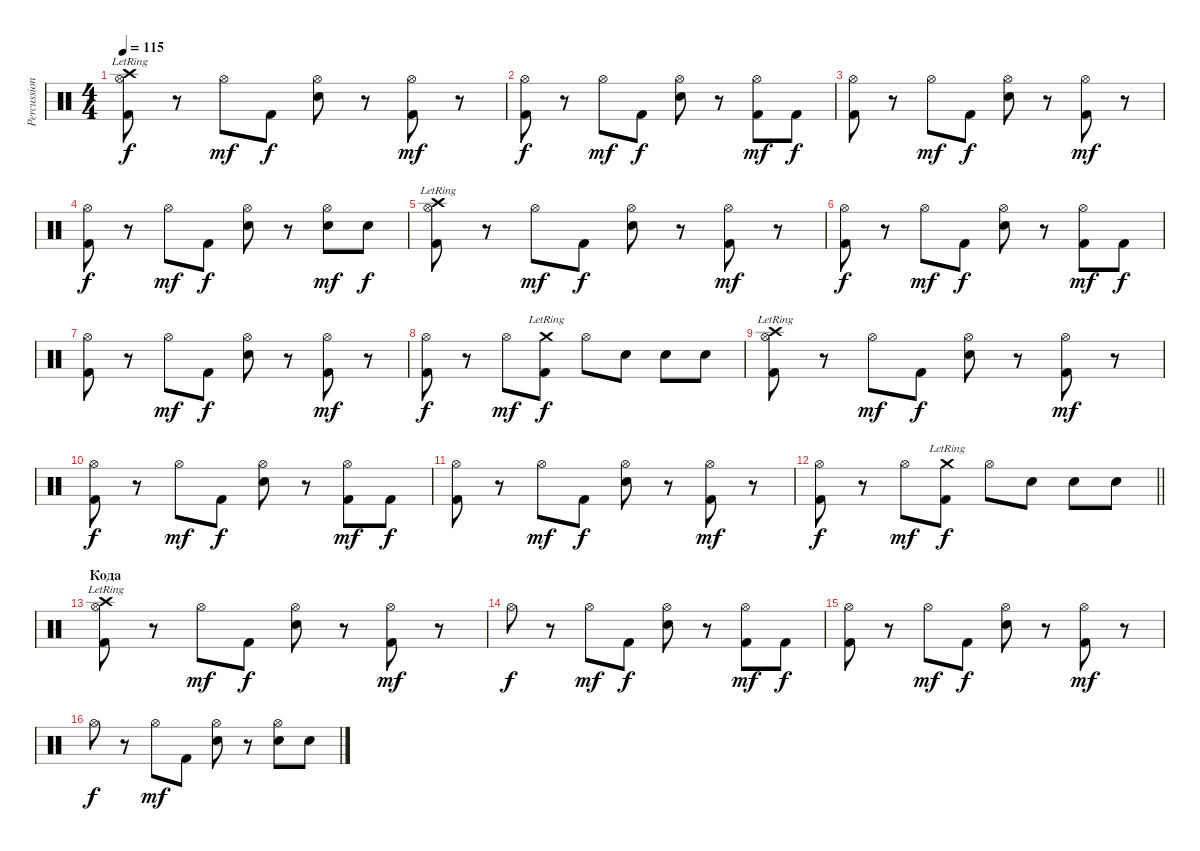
\track ("Percussions" "Percussion") {instrument percussion}
\staff {score}
\articulation defaults
\ts (4 4)
\tempo 115
\clef neutral
\ks c
("Crash high (hit)"{lr} "Kick (hit) 2" "Hi-Hat (open)").8{dy f} r.8 "Hi-Hat (open)".8{dy mf} "Kick (hit) 2".8{dy f} ("Electric Snare (hit)" "Hi-Hat (open)").8 r.8 ("Kick (hit) 2" "Hi-Hat (open)").8{dy mf} r.8 |
("Kick (hit) 2" "Hi-Hat (open)").8{dy f} r.8 "Hi-Hat (open)".8{dy mf} "Kick (hit) 2".8{dy f} ("Electric Snare (hit)" "Hi-Hat (open)").8 r.8 ("Kick (hit) 2" "Hi-Hat (open)").8{dy mf} "Kick (hit) 2".8{dy f} |
("Kick (hit) 2" "Hi-Hat (open)").8 r.8 "Hi-Hat (open)".8{dy mf} "Kick (hit) 2".8{dy f} ("Electric Snare (hit)" "Hi-Hat (open)").8 r.8 ("Kick (hit) 2" "Hi-Hat (open)").8{dy mf} r.8 |
("Kick (hit) 2" "Hi-Hat (open)").8{dy f} r.8 "Hi-Hat (open)".8{dy mf} "Kick (hit) 2".8{dy f} ("Electric Snare (hit)" "Hi-Hat (open)").8 r.8 ("Electric Snare (hit)" "Hi-Hat (open)").8{dy mf} "Electric Snare (hit)".8{dy f} |
("Crash high (hit)"{lr} "Kick (hit) 2" "Hi-Hat (open)").8 r.8 "Hi-Hat (open)".8{dy mf} "Kick (hit) 2".8{dy f} ("Electric Snare (hit)" "Hi-Hat (open)").8 r.8 ("Kick (hit) 2" "Hi-Hat (open)").8{dy mf} r.8 |
("Kick (hit) 2" "Hi-Hat (open)").8{dy f} r.8 "Hi-Hat (open)".8{dy mf} "Kick (hit) 2".8{dy f} ("Electric Snare (hit)" "Hi-Hat (open)").8 r.8 ("Kick (hit) 2" "Hi-Hat (open)").8{dy mf} "Kick (hit) 2".8{dy f} |
("Kick (hit) 2" "Hi-Hat (open)").8 r.8 "Hi-Hat (open)".8{dy mf} "Kick (hit) 2".8{dy f} ("Electric Snare (hit)" "Hi-Hat (open)").8 r.8 ("Kick (hit) 2" "Hi-Hat (open)").8{dy mf} r.8 |
("Kick (hit) 2" "Hi-Hat (open)").8{dy f} r.8 "Hi-Hat (open)".8{dy mf} ("Crash medium (hit)"{lr} "Kick (hit) 2").8{dy f} "Hi-Hat (open)".8 "Electric Snare (hit)".8 "Electric Snare (hit)".8 "Electric Snare (hit)".8 |
("Crash high (hit)"{lr} "Kick (hit) 2" "Hi-Hat (open)").8 r.8 "Hi-Hat (open)".8{dy mf} "Kick (hit) 2".8{dy f} ("Electric Snare (hit)" "Hi-Hat (open)").8 r.8 ("Kick (hit) 2" "Hi-Hat (open)").8{dy mf} r.8 |
("Kick (hit) 2" "Hi-Hat (open)").8{dy f} r.8 "Hi-Hat (open)".8{dy mf} "Kick (hit) 2".8{dy f} ("Electric Snare (hit)" "Hi-Hat (open)").8 r.8 ("Kick (hit) 2" "Hi-Hat (open)").8{dy mf} "Kick (hit) 2".8{dy f} |
("Kick (hit) 2" "Hi-Hat (open)").8 r.8 "Hi-Hat (open)".8{dy mf} "Kick (hit) 2".8{dy f} ("Electric Snare (hit)" "Hi-Hat (open)").8 r.8 ("Kick (hit) 2" "Hi-Hat (open)").8{dy mf} r.8 |
\barLineRight lightlight
("Kick (hit) 2" "Hi-Hat (open)").8{dy f} r.8 "Hi-Hat (open)".8{dy mf} ("Crash medium (hit)"{lr} "Kick (hit) 2").8{dy f} "Hi-Hat (open)".8 "Electric Snare (hit)".8 "Electric Snare (hit)".8 "Electric Snare (hit)".8 |
\section ("" "Кода")
("Crash high (hit)"{lr} "Kick (hit) 2" "Hi-Hat (open)").8 r.8 "Hi-Hat (open)".8{dy mf} "Kick (hit) 2".8{dy f} ("Electric Snare (hit)" "Hi-Hat (open)").8 r.8 ("Kick (hit) 2" "Hi-Hat (open)").8{dy mf} r.8 |
"Hi-Hat (open)".8{dy f} r.8 "Hi-Hat (open)".8{dy mf} "Kick (hit) 2".8{dy f} ("Electric Snare (hit)" "Hi-Hat (open)").8 r.8 ("Kick (hit) 2" "Hi-Hat (open)").8{dy mf} "Kick (hit) 2".8{dy f} |
("Kick (hit) 2" "Hi-Hat (open)").8 r.8 "Hi-Hat (open)".8{dy mf} "Kick (hit) 2".8{dy f} ("Electric Snare (hit)" "Hi-Hat (open)").8 r.8 ("Kick (hit) 2" "Hi-Hat (open)").8{dy mf} r.8 |
"Hi-Hat (open)".8{dy f} r.8 "Hi-Hat (open)".8{dy mf} "Kick (hit) 2".8 ("Electric Snare (hit)" "Hi-Hat (open)").8 r.8 ("Electric Snare (hit)" "Hi-Hat (open)").8 "Electric Snare (hit)".8
